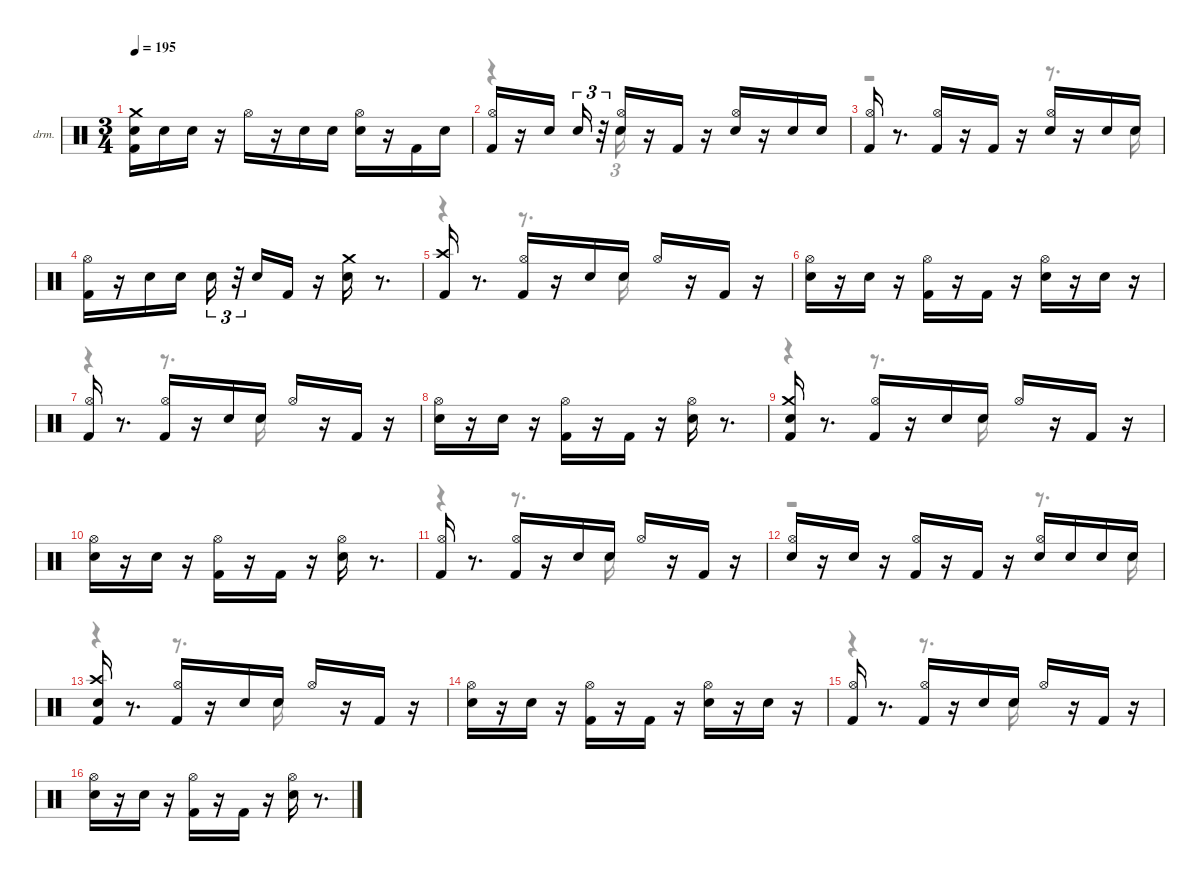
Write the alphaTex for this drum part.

\hideDynamics
\bracketExtendMode nobrackets
\firstSystemTrackNameOrientation horizontal
\otherSystemsTrackNameOrientation horizontal
\track ("EZdrummer 3" "drm.") {instrument percussion}
\staff {score}
\articulation defaults
\voice
\ts (3 4)
\tempo 195
\clef neutral
\ks aminor
("Kick (hit) 2" "Snare (hit) 2" "Crash medium (hit)").16{dy f beam Down} "Snare (hit) 2".16{dy pp beam Down} "Snare (hit) 2".16{dy ppp beam Down} r.16{beam Down} "Hi-Hat (open)"{acc #}.16{dy mp beam Down} r.16{beam Down} "Snare (hit) 2".16{dy ff beam Down} "Snare (hit) 2".16{dy pp beam Down} ("Snare (hit) 2" "Hi-Hat (open)"{acc #}).16{dy ppp beam Down} r.16{beam Down} "Kick (hit) 2".16{dy p beam Up} "Snare (hit) 2".16{dy ppp beam Up} |
("Kick (hit) 2" "Hi-Hat (open)"{acc #}).16{dy ff beam Up} r.16{beam Up} "Snare (hit) 2".16{beam Up} "Snare (hit) 2".16{tu (3 2) dy pp beam Up} r.32{tu (3 2) beam Up} ("Snare (hit) 2" "Hi-Hat (open)"{acc #}).16{dy mf beam Up} r.16{beam Up} "Kick (hit) 2".16{dy f beam Up} r.16{beam Up} ("Snare (hit) 2" "Hi-Hat (open)"{acc #}).16{dy mf beam Up} r.16{beam Up} "Snare (hit) 2".16{dy f beam Up} "Snare (hit) 2".16{dy ppp beam Up} |
("Kick (hit) 2" "Hi-Hat (open)"{acc #}).16{dy fff beam Up} r.8{d beam Up} ("Kick (hit) 2" "Hi-Hat (open)"{acc #}).16{dy mf beam Up} r.16{beam Up} "Kick (hit) 2".16{dy ff beam Up} r.16{beam Up} ("Snare (hit) 2" "Hi-Hat (open)"{acc #}).16{dy mf beam Up} r.16{beam Up} "Snare (hit) 2".16{dy pp beam Up} "Snare (hit) 2".16{dy ppp beam Up} |
("Kick (hit) 2" "Hi-Hat (open)"{acc #}).16{dy ff beam Down} r.16{beam Down} "Snare (hit) 2".16{dy mf beam Down} "Snare (hit) 2".16{dy p beam Down} "Snare (hit) 2".16{tu (3 2) dy ff beam Down} r.32{tu (3 2) beam Down} "Snare (hit) 2".16{dy ppp beam Up} "Kick (hit) 2".16{dy f beam Up} r.16{beam Up} ("Snare (hit) 2" "Crash medium (hit)").16{dy ff beam Down} r.8{d beam Down} |
("Kick (hit) 2" "Crash high (hit)"{acc #}).16{beam Up} r.8{d beam Up} ("Kick (hit) 2" "Hi-Hat (open)"{acc #}).16{dy mf beam Up} r.16{beam Up} "Snare (hit) 2".16{dy f beam Up} "Snare (hit) 2".16{dy ppp beam Up} "Hi-Hat (open)"{acc #}.16{dy f beam Up} r.16{beam Up} "Kick (hit) 2".16{beam Up} r.16{beam Up} |
("Snare (hit) 2" "Hi-Hat (open)"{acc #}).16{dy ff beam Down} r.16{beam Down} "Snare (hit) 2".16{dy ppp beam Down} r.16{beam Down} ("Kick (hit) 2" "Hi-Hat (open)"{acc #}).16{beam Down} r.16{beam Down} "Kick (hit) 2".16{dy ff beam Up} r.16{beam Up} ("Snare (hit) 2" "Hi-Hat (open)"{acc #}).16{dy f beam Down} r.16{beam Down} "Snare (hit) 2".16{dy pp beam Down} r.16{beam Down} |
("Kick (hit) 2" "Hi-Hat (open)"{acc #}).16{dy fff beam Up} r.8{d beam Up} ("Kick (hit) 2" "Hi-Hat (open)"{acc #}).16{dy f beam Up} r.16{beam Up} "Snare (hit) 2".16{beam Up} "Snare (hit) 2".16{dy ppp beam Up} "Hi-Hat (open)"{acc #}.16{dy ff beam Up} r.16{beam Up} "Kick (hit) 2".16{dy f beam Up} r.16{beam Up} |
("Snare (hit) 2" "Hi-Hat (open)"{acc #}).16{dy ff beam Down} r.16{beam Down} "Snare (hit) 2".16{dy ppp beam Down} r.16{beam Down} ("Kick (hit) 2" "Hi-Hat (open)"{acc #}).16{dy f beam Down} r.16{beam Down} "Kick (hit) 2".16{dy ff beam Up} r.16{beam Up} ("Snare (hit) 2" "Hi-Hat (open)"{acc #}).16{dy f beam Down} r.8{d beam Down} |
("Kick (hit) 2" "Snare (hit) 2" "Crash medium (hit)").16{dy ff beam Up} r.8{d beam Up} ("Kick (hit) 2" "Hi-Hat (open)"{acc #}).16{dy mf beam Up} r.16{beam Up} "Snare (hit) 2".16{dy f beam Up} "Snare (hit) 2".16{dy ppp beam Up} "Hi-Hat (open)"{acc #}.16{dy f beam Up} r.16{beam Up} "Kick (hit) 2".16{beam Up} r.16{beam Up} |
("Snare (hit) 2" "Hi-Hat (open)"{acc #}).16{dy ff beam Down} r.16{beam Down} "Snare (hit) 2".16{dy ppp beam Down} r.16{beam Down} ("Kick (hit) 2" "Hi-Hat (open)"{acc #}).16{beam Down} r.16{beam Down} "Kick (hit) 2".16{dy ff beam Up} r.16{beam Up} ("Snare (hit) 2" "Hi-Hat (open)"{acc #}).16{dy fff beam Down} r.8{d beam Down} |
("Kick (hit) 2" "Hi-Hat (open)"{acc #}).16{beam Up} r.8{d beam Up} ("Kick (hit) 2" "Hi-Hat (open)"{acc #}).16{dy mf beam Up} r.16{beam Up} "Snare (hit) 2".16{dy f beam Up} "Snare (hit) 2".16{dy ppp beam Up} "Hi-Hat (open)"{acc #}.16{dy ff beam Up} r.16{beam Up} "Kick (hit) 2".16{dy f beam Up} r.16{beam Up} |
("Snare (hit) 2" "Hi-Hat (open)"{acc #}).16{dy ff beam Up} r.16{beam Up} "Snare (hit) 2".16{dy ppp beam Up} r.16{beam Up} ("Kick (hit) 2" "Hi-Hat (open)"{acc #}).16{dy mf beam Up} r.16{beam Up} "Kick (hit) 2".16{dy ff beam Up} r.16{beam Up} ("Snare (hit) 2" "Hi-Hat (open)"{acc #}).16{dy f beam Up} "Snare (hit) 2".16{dy pp beam Up} "Snare (hit) 2".16{dy ppp beam Up} "Snare (hit) 2".16{beam Up} |
("Kick (hit) 2" "Snare (hit) 2" "Crash high (hit)"{acc #}).16{dy ff beam Up} r.8{d beam Up} ("Kick (hit) 2" "Hi-Hat (open)"{acc #}).16{dy mf beam Up} r.16{beam Up} "Snare (hit) 2".16{dy f beam Up} "Snare (hit) 2".16{dy ppp beam Up} "Hi-Hat (open)"{acc #}.16{dy f beam Up} r.16{beam Up} "Kick (hit) 2".16{beam Up} r.16{beam Up} |
("Snare (hit) 2" "Hi-Hat (open)"{acc #}).16{dy ff beam Down} r.16{beam Down} "Snare (hit) 2".16{dy ppp beam Down} r.16{beam Down} ("Kick (hit) 2" "Hi-Hat (open)"{acc #}).16{dy mf beam Down} r.16{beam Down} "Kick (hit) 2".16{dy ff beam Up} r.16{beam Up} ("Snare (hit) 2" "Hi-Hat (open)"{acc #}).16{dy fff beam Down} r.16{beam Down} "Snare (hit) 2".16{dy pp beam Down} r.16{beam Down} |
("Kick (hit) 2" "Hi-Hat (open)"{acc #}).16{dy ff beam Up} r.8{d beam Up} ("Kick (hit) 2" "Hi-Hat (open)"{acc #}).16{dy f beam Up} r.16{beam Up} "Snare (hit) 2".16{beam Up} "Snare (hit) 2".16{dy ppp beam Up} "Hi-Hat (open)"{acc #}.16{dy ff beam Up} r.16{beam Up} "Kick (hit) 2".16{dy f beam Up} r.16{beam Up} |
("Snare (hit) 2" "Hi-Hat (open)"{acc #}).16{dy ff beam Down} r.16{beam Down} "Snare (hit) 2".16{dy ppp beam Down} r.16{beam Down} ("Kick (hit) 2" "Hi-Hat (open)"{acc #}).16{dy f beam Down} r.16{beam Down} "Kick (hit) 2".16{dy ff beam Up} r.16{beam Up} ("Snare (hit) 2" "Hi-Hat (open)"{acc #}).16{dy f beam Down} r.8{d beam Down}
\voice
\clef neutral
\ottava regular
\simile none
\ks aminor
|
r.4{beam Down} "Snare (hit) 2".16{tu (3 2) beam Down} |
r.2{beam Down} r.8{d beam Down} "Snare (hit) 2".16{beam Down} |
|
r.4{beam Down} r.8{d beam Down} "Snare (hit) 2".16{dy pp beam Down} |
|
r.4{beam Down} r.8{d beam Down} "Snare (hit) 2".16{beam Down} |
|
r.4{beam Down} r.8{d beam Down} "Snare (hit) 2".16{beam Down} |
|
r.4{beam Down} r.8{d beam Down} "Snare (hit) 2".16{beam Down} |
r.2{beam Down} r.8{d beam Down} "Snare (hit) 2".16{dy ppp beam Down} |
r.4{beam Down} r.8{d beam Down} "Snare (hit) 2".16{dy pp beam Down} |
|
r.4{beam Down} r.8{d beam Down} "Snare (hit) 2".16{beam Down} |
